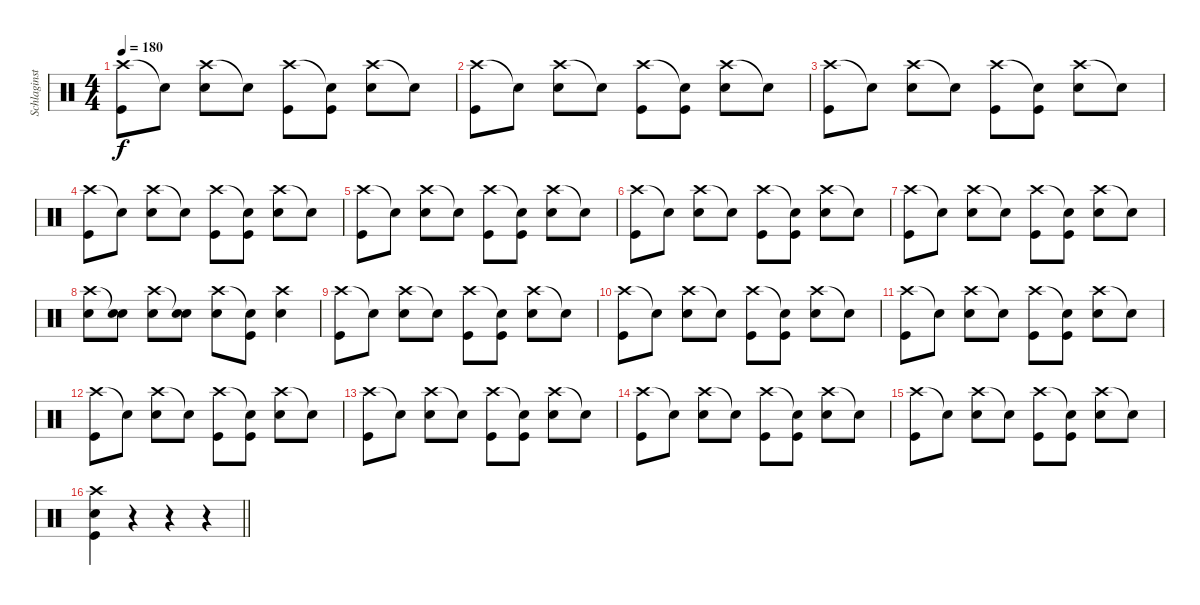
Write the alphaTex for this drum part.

\track ("Schlaginstrumente - Auswahl" "Schlaginst") {instrument percussion}
\staff {score}
\articulation defaults
\ts (4 4)
\tempo 180
\clef neutral
\ks c
("Crash high (hit)" "Kick (hit)").8{dy f} "Snare (hit)"{t}.8 ("Crash high (hit)" "Electric Snare (hit)").8 "Snare (hit)"{t}.8 ("Crash high (hit)" "Kick (hit)").8 ("Snare (hit)"{t} "Kick (hit)").8 ("Crash high (hit)" "Electric Snare (hit)").8 "Snare (hit)"{t}.8 |
("Crash high (hit)" "Kick (hit)").8 "Snare (hit)"{t}.8 ("Crash high (hit)" "Electric Snare (hit)").8 "Snare (hit)"{t}.8 ("Crash high (hit)" "Kick (hit)").8 ("Snare (hit)"{t} "Kick (hit)").8 ("Crash high (hit)" "Electric Snare (hit)").8 "Snare (hit)"{t}.8 |
("Crash high (hit)" "Kick (hit)").8 "Snare (hit)"{t}.8 ("Crash high (hit)" "Electric Snare (hit)").8 "Snare (hit)"{t}.8 ("Crash high (hit)" "Kick (hit)").8 ("Snare (hit)"{t} "Kick (hit)").8 ("Crash high (hit)" "Electric Snare (hit)").8 "Snare (hit)"{t}.8 |
("Crash high (hit)" "Kick (hit)").8 "Snare (hit)"{t}.8 ("Crash high (hit)" "Electric Snare (hit)").8 "Snare (hit)"{t}.8 ("Crash high (hit)" "Kick (hit)").8 ("Snare (hit)"{t} "Kick (hit)").8 ("Crash high (hit)" "Electric Snare (hit)").8 "Snare (hit)"{t}.8 |
("Crash high (hit)" "Kick (hit)").8 "Snare (hit)"{t}.8 ("Crash high (hit)" "Electric Snare (hit)").8 "Snare (hit)"{t}.8 ("Crash high (hit)" "Kick (hit)").8 ("Snare (hit)"{t} "Kick (hit)").8 ("Crash high (hit)" "Electric Snare (hit)").8 "Snare (hit)"{t}.8 |
("Crash high (hit)" "Kick (hit)").8 "Snare (hit)"{t}.8 ("Crash high (hit)" "Electric Snare (hit)").8 "Snare (hit)"{t}.8 ("Crash high (hit)" "Kick (hit)").8 ("Snare (hit)"{t} "Kick (hit)").8 ("Crash high (hit)" "Electric Snare (hit)").8 "Snare (hit)"{t}.8 |
("Crash high (hit)" "Kick (hit)").8 "Snare (hit)"{t}.8 ("Crash high (hit)" "Electric Snare (hit)").8 "Snare (hit)"{t}.8 ("Crash high (hit)" "Kick (hit)").8 ("Snare (hit)"{t} "Kick (hit)").8 ("Crash high (hit)" "Electric Snare (hit)").8 "Snare (hit)"{t}.8 |
("Crash high (hit)" "Electric Snare (hit)").8 ("Snare (hit)"{t} "Electric Snare (hit)").8 ("Crash high (hit)" "Electric Snare (hit)").8 ("Snare (hit)"{t} "Electric Snare (hit)").8 ("Crash high (hit)" "Electric Snare (hit)").8 ("Snare (hit)"{t} "Kick (hit)").8 ("Crash high (hit)" "Electric Snare (hit)").4 |
("Crash high (hit)" "Kick (hit)").8 "Snare (hit)"{t}.8 ("Crash high (hit)" "Electric Snare (hit)").8 "Snare (hit)"{t}.8 ("Crash high (hit)" "Kick (hit)").8 ("Snare (hit)"{t} "Kick (hit)").8 ("Crash high (hit)" "Electric Snare (hit)").8 "Snare (hit)"{t}.8 |
("Crash high (hit)" "Kick (hit)").8 "Snare (hit)"{t}.8 ("Crash high (hit)" "Electric Snare (hit)").8 "Snare (hit)"{t}.8 ("Crash high (hit)" "Kick (hit)").8 ("Snare (hit)"{t} "Kick (hit)").8 ("Crash high (hit)" "Electric Snare (hit)").8 "Snare (hit)"{t}.8 |
("Crash high (hit)" "Kick (hit)").8 "Snare (hit)"{t}.8 ("Crash high (hit)" "Electric Snare (hit)").8 "Snare (hit)"{t}.8 ("Crash high (hit)" "Kick (hit)").8 ("Snare (hit)"{t} "Kick (hit)").8 ("Crash high (hit)" "Electric Snare (hit)").8 "Snare (hit)"{t}.8 |
("Crash high (hit)" "Kick (hit)").8 "Snare (hit)"{t}.8 ("Crash high (hit)" "Electric Snare (hit)").8 "Snare (hit)"{t}.8 ("Crash high (hit)" "Kick (hit)").8 ("Snare (hit)"{t} "Kick (hit)").8 ("Crash high (hit)" "Electric Snare (hit)").8 "Snare (hit)"{t}.8 |
("Crash high (hit)" "Kick (hit)").8 "Snare (hit)"{t}.8 ("Crash high (hit)" "Electric Snare (hit)").8 "Snare (hit)"{t}.8 ("Crash high (hit)" "Kick (hit)").8 ("Snare (hit)"{t} "Kick (hit)").8 ("Crash high (hit)" "Electric Snare (hit)").8 "Snare (hit)"{t}.8 |
("Crash high (hit)" "Kick (hit)").8 "Snare (hit)"{t}.8 ("Crash high (hit)" "Electric Snare (hit)").8 "Snare (hit)"{t}.8 ("Crash high (hit)" "Kick (hit)").8 ("Snare (hit)"{t} "Kick (hit)").8 ("Crash high (hit)" "Electric Snare (hit)").8 "Snare (hit)"{t}.8 |
("Crash high (hit)" "Kick (hit)").8 "Snare (hit)"{t}.8 ("Crash high (hit)" "Electric Snare (hit)").8 "Snare (hit)"{t}.8 ("Crash high (hit)" "Kick (hit)").8 ("Snare (hit)"{t} "Kick (hit)").8 ("Crash high (hit)" "Electric Snare (hit)").8 "Snare (hit)"{t}.8 |
\barLineRight lightlight
("Crash high (hit)" "Electric Snare (hit)" "Kick (hit)").4 r.4 r.4 r.4
